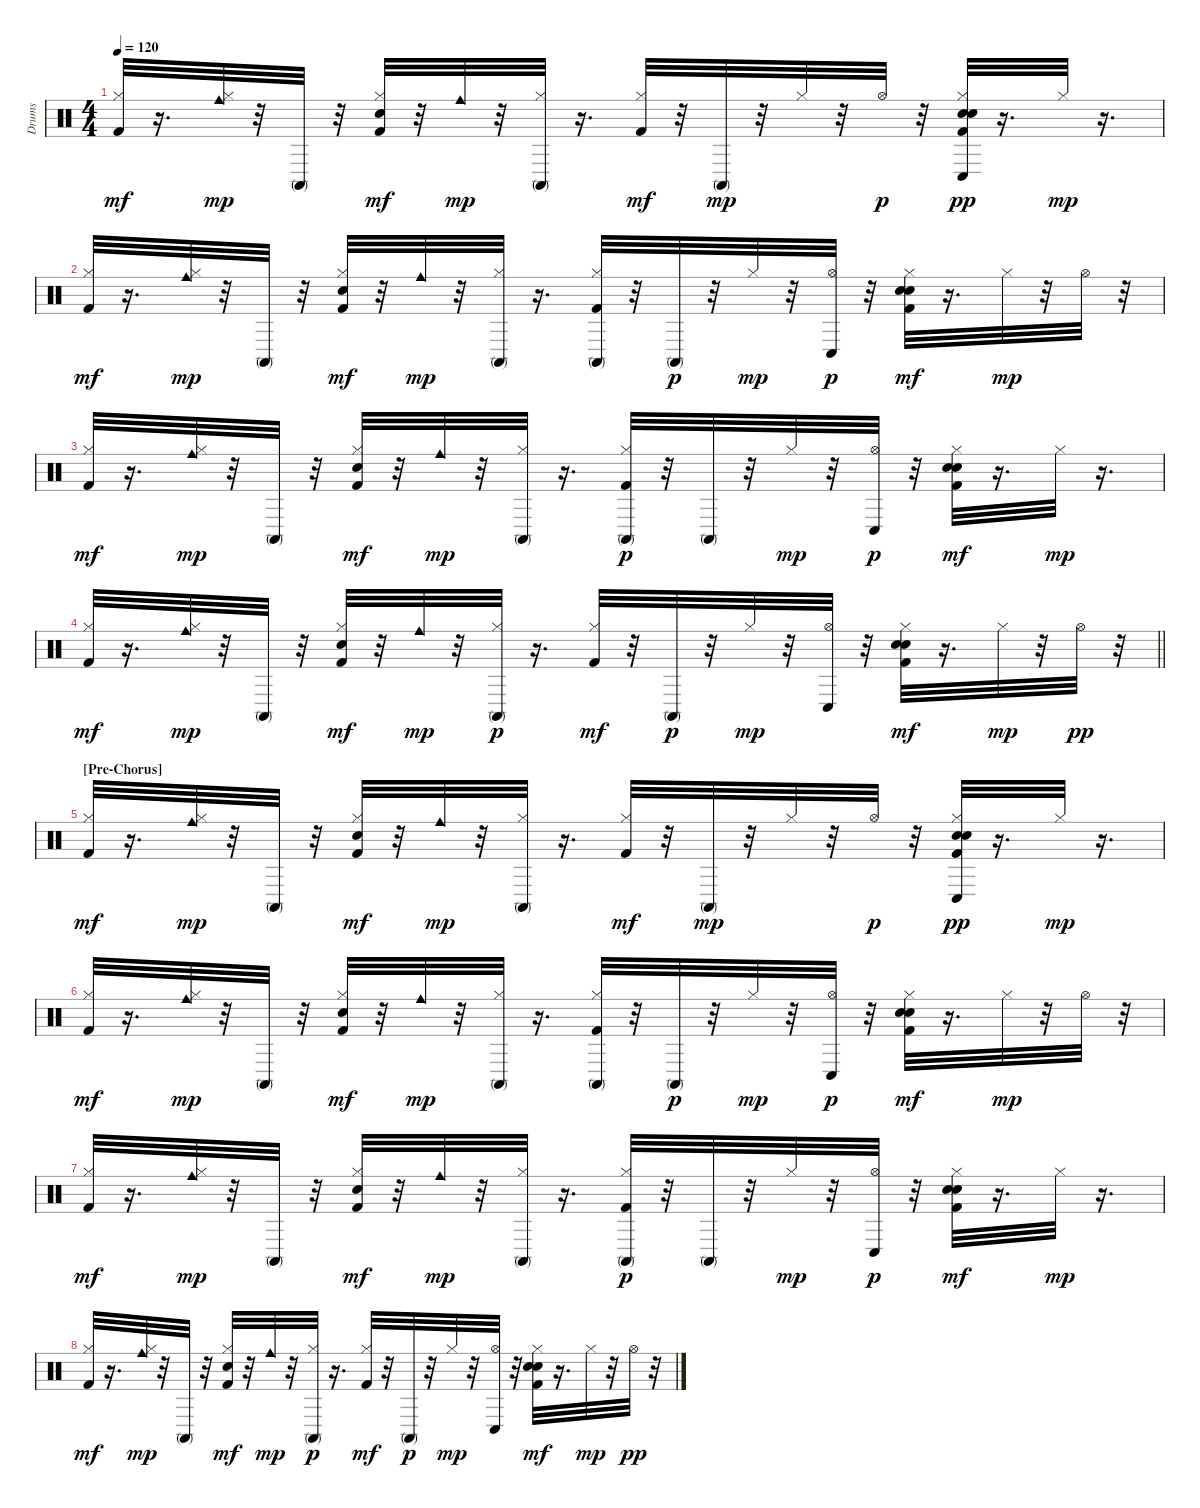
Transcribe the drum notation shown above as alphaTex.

\track ("Drums" "Drums") {instrument percussion}
\staff {score}
\articulation defaults
\ts (4 4)
\tempo 120
\clef neutral
\ks c
("Hi-Hat (closed)" "Kick (hit) 2").32{dy mf} r.16{d} ("Hi-Hat (closed)" "Cowbell medium (hit)").32{dy mp} r.32 "Conga high (mute)".32 r.32 ("Hi-Hat (closed)" "Electric Snare (hit)" "Kick (hit) 2").32{dy mf} r.32 "Cowbell medium (hit)".32{dy mp} r.32 ("Hi-Hat (closed)" "Conga high (mute)").32 r.16{d} ("Hi-Hat (closed)" "Kick (hit) 2").32{dy mf} r.32 "Conga high (mute)".32{dy mp} r.32 "Hi-Hat (closed)".32 r.32 "Hi-Hat (open)".32{dy p} r.32 ("Hi-Hat (closed)" "Kick (hit) 2" "Hand Clap (hit)" "Electric Snare (hit)" "Conga low (hit)").32{dy pp} r.16{d} "Hi-Hat (closed)".32{dy mp} r.16{d} |
("Hi-Hat (closed)" "Kick (hit) 2").32{dy mf} r.16{d} ("Hi-Hat (closed)" "Cowbell medium (hit)").32{dy mp} r.32 "Conga high (mute)".32 r.32 ("Hi-Hat (closed)" "Electric Snare (hit)" "Kick (hit) 2").32{dy mf} r.32 "Cowbell medium (hit)".32{dy mp} r.32 ("Hi-Hat (closed)" "Conga high (mute)").32 r.16{d} ("Hi-Hat (closed)" "Kick (hit) 2" "Conga high (mute)").32 r.32 "Conga high (mute)".32{dy p} r.32 "Hi-Hat (closed)".32{dy mp} r.32 ("Hi-Hat (open)" "Conga low (hit)").32{dy p} r.32 ("Kick (hit) 2" "Hi-Hat (closed)" "Electric Snare (hit)" "Hand Clap (hit)").32{dy mf} r.16{d} "Hi-Hat (closed)".32{dy mp} r.32 "Hi-Hat (open)".32 r.32 |
("Hi-Hat (closed)" "Kick (hit) 2").32{dy mf} r.16{d} ("Hi-Hat (closed)" "Cowbell medium (hit)").32{dy mp} r.32 "Conga high (mute)".32 r.32 ("Hi-Hat (closed)" "Electric Snare (hit)" "Kick (hit) 2").32{dy mf} r.32 "Cowbell medium (hit)".32{dy mp} r.32 ("Hi-Hat (closed)" "Conga high (mute)").32 r.16{d} ("Kick (hit) 2" "Hi-Hat (closed)" "Conga high (mute)").32{dy p} r.32 "Conga high (mute)".32 r.32 "Hi-Hat (closed)".32{dy mp} r.32 ("Hi-Hat (open)" "Conga low (hit)").32{dy p} r.32 ("Hi-Hat (closed)" "Hand Clap (hit)" "Electric Snare (hit)" "Kick (hit) 2").32{dy mf} r.16{d} "Hi-Hat (closed)".32{dy mp} r.16{d} |
\barLineRight lightlight
("Hi-Hat (closed)" "Kick (hit) 2").32{dy mf} r.16{d} ("Hi-Hat (closed)" "Cowbell medium (hit)").32{dy mp} r.32 "Conga high (mute)".32 r.32 ("Hi-Hat (closed)" "Electric Snare (hit)" "Kick (hit) 2").32{dy mf} r.32 "Cowbell medium (hit)".32{dy mp} r.32 ("Hi-Hat (closed)" "Conga high (mute)").32{dy p} r.16{d} ("Hi-Hat (closed)" "Kick (hit) 2").32{dy mf} r.32 "Conga high (mute)".32{dy p} r.32 "Hi-Hat (closed)".32{dy mp} r.32 ("Hi-Hat (open)" "Conga low (hit)").32 r.32 ("Kick (hit) 2" "Hi-Hat (closed)" "Electric Snare (hit)" "Hand Clap (hit)").32{dy mf} r.16{d} "Hi-Hat (closed)".32{dy mp} r.32 "Hi-Hat (open)".32{dy pp} r.32 |
\section ("" "[Pre-Chorus]")
("Hi-Hat (closed)" "Kick (hit) 2").32{dy mf} r.16{d} ("Hi-Hat (closed)" "Cowbell medium (hit)").32{dy mp} r.32 "Conga high (mute)".32 r.32 ("Hi-Hat (closed)" "Electric Snare (hit)" "Kick (hit) 2").32{dy mf} r.32 "Cowbell medium (hit)".32{dy mp} r.32 ("Hi-Hat (closed)" "Conga high (mute)").32 r.16{d} ("Hi-Hat (closed)" "Kick (hit) 2").32{dy mf} r.32 "Conga high (mute)".32{dy mp} r.32 "Hi-Hat (closed)".32 r.32 "Hi-Hat (open)".32{dy p} r.32 ("Hi-Hat (closed)" "Kick (hit) 2" "Hand Clap (hit)" "Electric Snare (hit)" "Conga low (hit)").32{dy pp} r.16{d} "Hi-Hat (closed)".32{dy mp} r.16{d} |
("Hi-Hat (closed)" "Kick (hit) 2").32{dy mf} r.16{d} ("Hi-Hat (closed)" "Cowbell medium (hit)").32{dy mp} r.32 "Conga high (mute)".32 r.32 ("Hi-Hat (closed)" "Electric Snare (hit)" "Kick (hit) 2").32{dy mf} r.32 "Cowbell medium (hit)".32{dy mp} r.32 ("Hi-Hat (closed)" "Conga high (mute)").32 r.16{d} ("Hi-Hat (closed)" "Kick (hit) 2" "Conga high (mute)").32 r.32 "Conga high (mute)".32{dy p} r.32 "Hi-Hat (closed)".32{dy mp} r.32 ("Hi-Hat (open)" "Conga low (hit)").32{dy p} r.32 ("Kick (hit) 2" "Hi-Hat (closed)" "Electric Snare (hit)" "Hand Clap (hit)").32{dy mf} r.16{d} "Hi-Hat (closed)".32{dy mp} r.32 "Hi-Hat (open)".32 r.32 |
("Hi-Hat (closed)" "Kick (hit) 2").32{dy mf} r.16{d} ("Hi-Hat (closed)" "Cowbell medium (hit)").32{dy mp} r.32 "Conga high (mute)".32 r.32 ("Hi-Hat (closed)" "Electric Snare (hit)" "Kick (hit) 2").32{dy mf} r.32 "Cowbell medium (hit)".32{dy mp} r.32 ("Hi-Hat (closed)" "Conga high (mute)").32 r.16{d} ("Kick (hit) 2" "Hi-Hat (closed)" "Conga high (mute)").32{dy p} r.32 "Conga high (mute)".32 r.32 "Hi-Hat (closed)".32{dy mp} r.32 ("Hi-Hat (open)" "Conga low (hit)").32{dy p} r.32 ("Hi-Hat (closed)" "Hand Clap (hit)" "Electric Snare (hit)" "Kick (hit) 2").32{dy mf} r.16{d} "Hi-Hat (closed)".32{dy mp} r.16{d} |
("Hi-Hat (closed)" "Kick (hit) 2").32{dy mf} r.16{d} ("Hi-Hat (closed)" "Cowbell medium (hit)").32{dy mp} r.32 "Conga high (mute)".32 r.32 ("Hi-Hat (closed)" "Electric Snare (hit)" "Kick (hit) 2").32{dy mf} r.32 "Cowbell medium (hit)".32{dy mp} r.32 ("Hi-Hat (closed)" "Conga high (mute)").32{dy p} r.16{d} ("Hi-Hat (closed)" "Kick (hit) 2").32{dy mf} r.32 "Conga high (mute)".32{dy p} r.32 "Hi-Hat (closed)".32{dy mp} r.32 ("Hi-Hat (open)" "Conga low (hit)").32 r.32 ("Kick (hit) 2" "Hi-Hat (closed)" "Electric Snare (hit)" "Hand Clap (hit)").32{dy mf} r.16{d} "Hi-Hat (closed)".32{dy mp} r.32 "Hi-Hat (open)".32{dy pp} r.32
